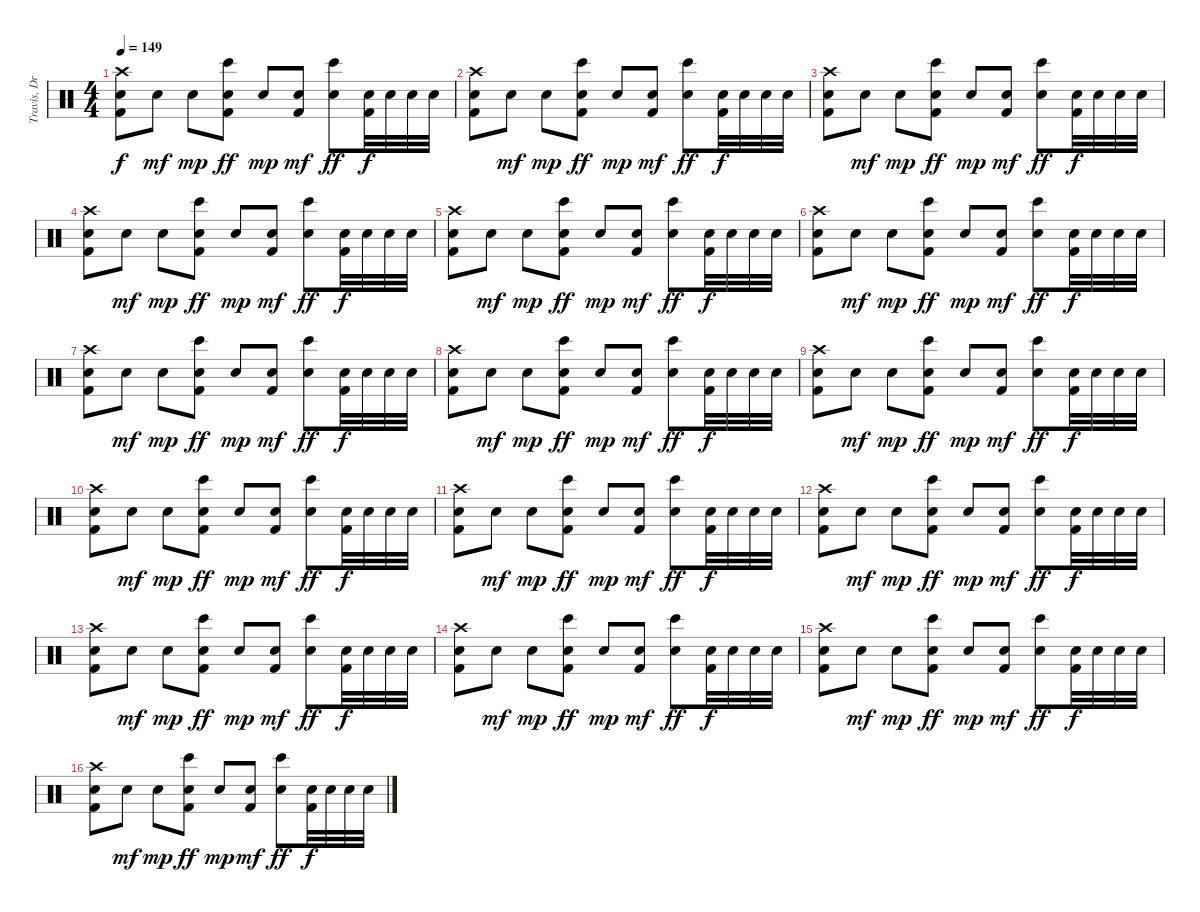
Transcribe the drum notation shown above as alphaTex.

\track ("Travis, Drums {Tabbed by Peter B.}" "Travis, Dr") {instrument percussion}
\staff {score}
\articulation defaults
\ts (4 4)
\tempo 149
\clef neutral
\ks c
("Crash high (hit)" "Snare (hit) 2" "Kick (hit) 2").8{dy f} "Snare (hit) 2".8{dy mf} "Snare (hit) 2".8{dy mp} ("Bongo High (hit)" "Snare (hit) 2" "Kick (hit) 2").8{dy ff} "Snare (hit) 2".8{dy mp} ("Snare (hit) 2" "Kick (hit) 2").8{dy mf} ("Bongo High (hit)" "Snare (hit) 2").8{dy ff} ("Snare (hit) 2" "Kick (hit) 2").32{dy f} "Snare (hit) 2".32 "Snare (hit) 2".32 "Snare (hit) 2".32 |
("Crash high (hit)" "Snare (hit) 2" "Kick (hit) 2").8 "Snare (hit) 2".8{dy mf} "Snare (hit) 2".8{dy mp} ("Bongo High (hit)" "Snare (hit) 2" "Kick (hit) 2").8{dy ff} "Snare (hit) 2".8{dy mp} ("Snare (hit) 2" "Kick (hit) 2").8{dy mf} ("Bongo High (hit)" "Snare (hit) 2").8{dy ff} ("Snare (hit) 2" "Kick (hit) 2").32{dy f} "Snare (hit) 2".32 "Snare (hit) 2".32 "Snare (hit) 2".32 |
("Crash high (hit)" "Snare (hit) 2" "Kick (hit) 2").8 "Snare (hit) 2".8{dy mf} "Snare (hit) 2".8{dy mp} ("Bongo High (hit)" "Snare (hit) 2" "Kick (hit) 2").8{dy ff} "Snare (hit) 2".8{dy mp} ("Snare (hit) 2" "Kick (hit) 2").8{dy mf} ("Bongo High (hit)" "Snare (hit) 2").8{dy ff} ("Snare (hit) 2" "Kick (hit) 2").32{dy f} "Snare (hit) 2".32 "Snare (hit) 2".32 "Snare (hit) 2".32 |
("Crash high (hit)" "Snare (hit) 2" "Kick (hit) 2").8 "Snare (hit) 2".8{dy mf} "Snare (hit) 2".8{dy mp} ("Bongo High (hit)" "Snare (hit) 2" "Kick (hit) 2").8{dy ff} "Snare (hit) 2".8{dy mp} ("Snare (hit) 2" "Kick (hit) 2").8{dy mf} ("Bongo High (hit)" "Snare (hit) 2").8{dy ff} ("Snare (hit) 2" "Kick (hit) 2").32{dy f} "Snare (hit) 2".32 "Snare (hit) 2".32 "Snare (hit) 2".32 |
("Crash high (hit)" "Snare (hit) 2" "Kick (hit) 2").8 "Snare (hit) 2".8{dy mf} "Snare (hit) 2".8{dy mp} ("Bongo High (hit)" "Snare (hit) 2" "Kick (hit) 2").8{dy ff} "Snare (hit) 2".8{dy mp} ("Snare (hit) 2" "Kick (hit) 2").8{dy mf} ("Bongo High (hit)" "Snare (hit) 2").8{dy ff} ("Snare (hit) 2" "Kick (hit) 2").32{dy f} "Snare (hit) 2".32 "Snare (hit) 2".32 "Snare (hit) 2".32 |
("Crash high (hit)" "Snare (hit) 2" "Kick (hit) 2").8 "Snare (hit) 2".8{dy mf} "Snare (hit) 2".8{dy mp} ("Bongo High (hit)" "Snare (hit) 2" "Kick (hit) 2").8{dy ff} "Snare (hit) 2".8{dy mp} ("Snare (hit) 2" "Kick (hit) 2").8{dy mf} ("Bongo High (hit)" "Snare (hit) 2").8{dy ff} ("Snare (hit) 2" "Kick (hit) 2").32{dy f} "Snare (hit) 2".32 "Snare (hit) 2".32 "Snare (hit) 2".32 |
("Crash high (hit)" "Snare (hit) 2" "Kick (hit) 2").8 "Snare (hit) 2".8{dy mf} "Snare (hit) 2".8{dy mp} ("Bongo High (hit)" "Snare (hit) 2" "Kick (hit) 2").8{dy ff} "Snare (hit) 2".8{dy mp} ("Snare (hit) 2" "Kick (hit) 2").8{dy mf} ("Bongo High (hit)" "Snare (hit) 2").8{dy ff} ("Snare (hit) 2" "Kick (hit) 2").32{dy f} "Snare (hit) 2".32 "Snare (hit) 2".32 "Snare (hit) 2".32 |
("Crash high (hit)" "Snare (hit) 2" "Kick (hit) 2").8 "Snare (hit) 2".8{dy mf} "Snare (hit) 2".8{dy mp} ("Bongo High (hit)" "Snare (hit) 2" "Kick (hit) 2").8{dy ff} "Snare (hit) 2".8{dy mp} ("Snare (hit) 2" "Kick (hit) 2").8{dy mf} ("Bongo High (hit)" "Snare (hit) 2").8{dy ff} ("Snare (hit) 2" "Kick (hit) 2").32{dy f} "Snare (hit) 2".32 "Snare (hit) 2".32 "Snare (hit) 2".32 |
("Crash high (hit)" "Snare (hit) 2" "Kick (hit) 2").8 "Snare (hit) 2".8{dy mf} "Snare (hit) 2".8{dy mp} ("Bongo High (hit)" "Snare (hit) 2" "Kick (hit) 2").8{dy ff} "Snare (hit) 2".8{dy mp} ("Snare (hit) 2" "Kick (hit) 2").8{dy mf} ("Bongo High (hit)" "Snare (hit) 2").8{dy ff} ("Snare (hit) 2" "Kick (hit) 2").32{dy f} "Snare (hit) 2".32 "Snare (hit) 2".32 "Snare (hit) 2".32 |
("Crash high (hit)" "Snare (hit) 2" "Kick (hit) 2").8 "Snare (hit) 2".8{dy mf} "Snare (hit) 2".8{dy mp} ("Bongo High (hit)" "Snare (hit) 2" "Kick (hit) 2").8{dy ff} "Snare (hit) 2".8{dy mp} ("Snare (hit) 2" "Kick (hit) 2").8{dy mf} ("Bongo High (hit)" "Snare (hit) 2").8{dy ff} ("Snare (hit) 2" "Kick (hit) 2").32{dy f} "Snare (hit) 2".32 "Snare (hit) 2".32 "Snare (hit) 2".32 |
("Crash high (hit)" "Snare (hit) 2" "Kick (hit) 2").8 "Snare (hit) 2".8{dy mf} "Snare (hit) 2".8{dy mp} ("Bongo High (hit)" "Snare (hit) 2" "Kick (hit) 2").8{dy ff} "Snare (hit) 2".8{dy mp} ("Snare (hit) 2" "Kick (hit) 2").8{dy mf} ("Bongo High (hit)" "Snare (hit) 2").8{dy ff} ("Snare (hit) 2" "Kick (hit) 2").32{dy f} "Snare (hit) 2".32 "Snare (hit) 2".32 "Snare (hit) 2".32 |
("Crash high (hit)" "Snare (hit) 2" "Kick (hit) 2").8 "Snare (hit) 2".8{dy mf} "Snare (hit) 2".8{dy mp} ("Bongo High (hit)" "Snare (hit) 2" "Kick (hit) 2").8{dy ff} "Snare (hit) 2".8{dy mp} ("Snare (hit) 2" "Kick (hit) 2").8{dy mf} ("Bongo High (hit)" "Snare (hit) 2").8{dy ff} ("Snare (hit) 2" "Kick (hit) 2").32{dy f} "Snare (hit) 2".32 "Snare (hit) 2".32 "Snare (hit) 2".32 |
("Crash high (hit)" "Snare (hit) 2" "Kick (hit) 2").8 "Snare (hit) 2".8{dy mf} "Snare (hit) 2".8{dy mp} ("Bongo High (hit)" "Snare (hit) 2" "Kick (hit) 2").8{dy ff} "Snare (hit) 2".8{dy mp} ("Snare (hit) 2" "Kick (hit) 2").8{dy mf} ("Bongo High (hit)" "Snare (hit) 2").8{dy ff} ("Snare (hit) 2" "Kick (hit) 2").32{dy f} "Snare (hit) 2".32 "Snare (hit) 2".32 "Snare (hit) 2".32 |
("Crash high (hit)" "Snare (hit) 2" "Kick (hit) 2").8 "Snare (hit) 2".8{dy mf} "Snare (hit) 2".8{dy mp} ("Bongo High (hit)" "Snare (hit) 2" "Kick (hit) 2").8{dy ff} "Snare (hit) 2".8{dy mp} ("Snare (hit) 2" "Kick (hit) 2").8{dy mf} ("Bongo High (hit)" "Snare (hit) 2").8{dy ff} ("Snare (hit) 2" "Kick (hit) 2").32{dy f} "Snare (hit) 2".32 "Snare (hit) 2".32 "Snare (hit) 2".32 |
("Crash high (hit)" "Snare (hit) 2" "Kick (hit) 2").8 "Snare (hit) 2".8{dy mf} "Snare (hit) 2".8{dy mp} ("Bongo High (hit)" "Snare (hit) 2" "Kick (hit) 2").8{dy ff} "Snare (hit) 2".8{dy mp} ("Snare (hit) 2" "Kick (hit) 2").8{dy mf} ("Bongo High (hit)" "Snare (hit) 2").8{dy ff} ("Snare (hit) 2" "Kick (hit) 2").32{dy f} "Snare (hit) 2".32 "Snare (hit) 2".32 "Snare (hit) 2".32 |
("Crash high (hit)" "Snare (hit) 2" "Kick (hit) 2").8 "Snare (hit) 2".8{dy mf} "Snare (hit) 2".8{dy mp} ("Bongo High (hit)" "Snare (hit) 2" "Kick (hit) 2").8{dy ff} "Snare (hit) 2".8{dy mp} ("Snare (hit) 2" "Kick (hit) 2").8{dy mf} ("Bongo High (hit)" "Snare (hit) 2").8{dy ff} ("Snare (hit) 2" "Kick (hit) 2").32{dy f} "Snare (hit) 2".32 "Snare (hit) 2".32 "Snare (hit) 2".32
